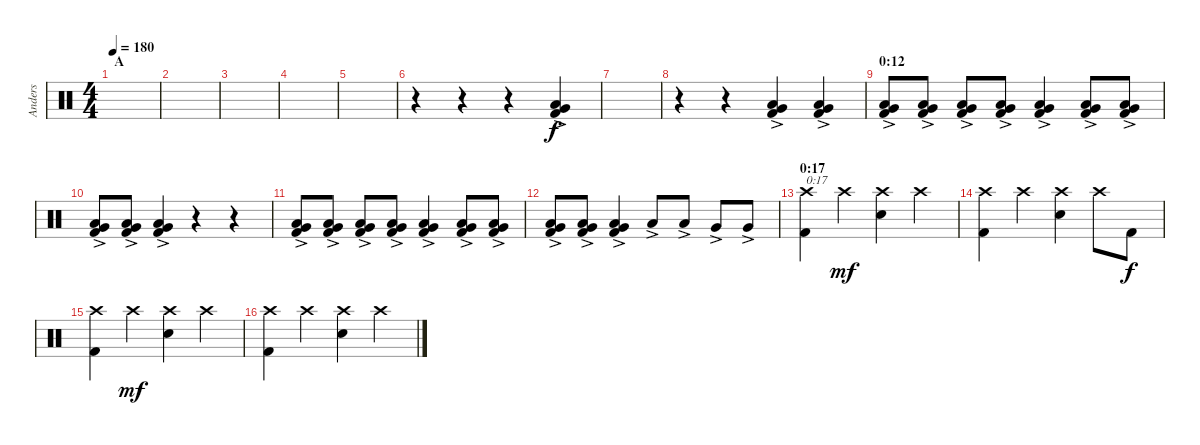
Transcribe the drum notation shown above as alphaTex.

\track ("Anders" "Anders") {instrument percussion}
\staff {score}
\articulation defaults
\ts (4 4)
\section ("" "A")
\tempo 180
\clef neutral
\ks c
|
|
|
|
|
r.4 r.4 r.4 ("Kick (hit) 2" "Low Floor Tom (hit)"{ac} "Very Low Tom (hit)"{ac}).4 |
|
r.4 r.4 ("Kick (hit) 2" "Low Floor Tom (hit)"{ac} "Very Low Tom (hit)"{ac}).4 ("Kick (hit) 2" "Low Floor Tom (hit)"{ac} "Very Low Tom (hit)"{ac}).4 |
\section ("" "0:12")
("Kick (hit) 2" "Low Floor Tom (hit)"{ac} "Very Low Tom (hit)"{ac}).8 ("Kick (hit) 2" "Low Floor Tom (hit)"{ac} "Very Low Tom (hit)"{ac}).8 ("Kick (hit) 2" "Low Floor Tom (hit)"{ac} "Very Low Tom (hit)"{ac}).8 ("Kick (hit) 2" "Low Floor Tom (hit)"{ac} "Very Low Tom (hit)"{ac}).8 ("Kick (hit) 2" "Low Floor Tom (hit)"{ac} "Very Low Tom (hit)"{ac}).4 ("Kick (hit) 2" "Low Floor Tom (hit)"{ac} "Very Low Tom (hit)"{ac}).8 ("Kick (hit) 2" "Low Floor Tom (hit)"{ac} "Very Low Tom (hit)"{ac}).8 |
("Kick (hit) 2" "Low Floor Tom (hit)"{ac} "Very Low Tom (hit)"{ac}).8 ("Kick (hit) 2" "Low Floor Tom (hit)"{ac} "Very Low Tom (hit)"{ac}).8 ("Kick (hit) 2" "Low Floor Tom (hit)"{ac} "Very Low Tom (hit)"{ac}).4 r.4 r.4 |
("Kick (hit) 2" "Low Floor Tom (hit)"{ac} "Very Low Tom (hit)"{ac}).8 ("Kick (hit) 2" "Low Floor Tom (hit)"{ac} "Very Low Tom (hit)"{ac}).8 ("Kick (hit) 2" "Low Floor Tom (hit)"{ac} "Very Low Tom (hit)"{ac}).8 ("Kick (hit) 2" "Low Floor Tom (hit)"{ac} "Very Low Tom (hit)"{ac}).8 ("Kick (hit) 2" "Low Floor Tom (hit)"{ac} "Very Low Tom (hit)"{ac}).4 ("Kick (hit) 2" "Low Floor Tom (hit)"{ac} "Very Low Tom (hit)"{ac}).8 ("Kick (hit) 2" "Low Floor Tom (hit)"{ac} "Very Low Tom (hit)"{ac}).8 |
("Kick (hit) 2" "Low Floor Tom (hit)"{ac} "Very Low Tom (hit)"{ac}).8 ("Kick (hit) 2" "Low Floor Tom (hit)"{ac} "Very Low Tom (hit)"{ac}).8 ("Kick (hit) 2" "Low Floor Tom (hit)"{ac} "Very Low Tom (hit)"{ac}).4 "Low Tom (hit)"{ac}.8 "Low Tom (hit)"{ac}.8 "Very Low Tom (hit)"{ac}.8 "Very Low Tom (hit)"{ac}.8 |
\section ("" "0:17")
("Kick (hit) 2" "Crash high (hit)").4{txt "0:17" dy f} "Crash high (hit)".4{dy mf} ("Electric Snare (hit)" "Crash high (hit)").4 "Crash high (hit)".4 |
("Kick (hit) 2" "Crash high (hit)").4 "Crash high (hit)".4 ("Electric Snare (hit)" "Crash high (hit)").4 "Crash high (hit)".8 "Kick (hit) 2".8{dy f} |
("Kick (hit) 2" "Crash high (hit)").4 "Crash high (hit)".4{dy mf} ("Electric Snare (hit)" "Crash high (hit)").4 "Crash high (hit)".4 |
("Kick (hit) 2" "Crash high (hit)").4 "Crash high (hit)".4 ("Electric Snare (hit)" "Crash high (hit)").4 "Crash high (hit)".4
